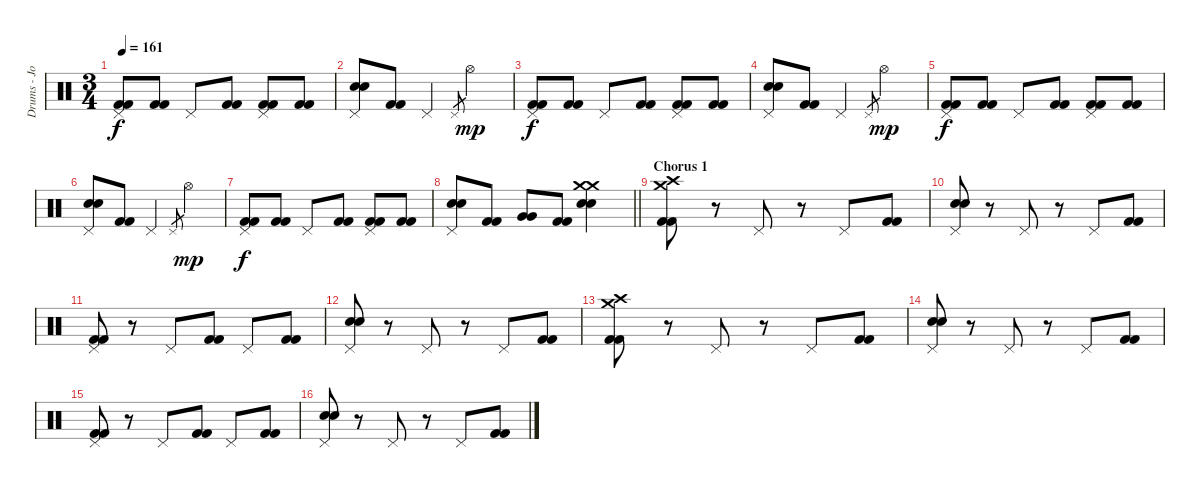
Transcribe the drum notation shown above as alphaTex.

\track ("Drums - Jon Wilkes" "Drums - Jo") {instrument percussion}
\staff {score}
\articulation defaults
\ts (3 4)
\tempo 161
\clef neutral
\ks c
("Pedal Hi-Hat (hit)" "Kick (hit) 2" "Kick (hit) 2").8{dy f} ("Kick (hit) 2" "Kick (hit) 2").8 "Pedal Hi-Hat (hit)".8 ("Kick (hit) 2" "Kick (hit) 2").8 ("Pedal Hi-Hat (hit)" "Kick (hit) 2" "Kick (hit) 2").8 ("Kick (hit) 2" "Kick (hit) 2").8 |
("Pedal Hi-Hat (hit)" "Electric Snare (hit)" "Electric Snare (hit)").8 ("Kick (hit) 2" "Kick (hit) 2").8 "Pedal Hi-Hat (hit)".4 "Pedal Hi-Hat (hit)".8{gr} "Hi-Hat (open)".4{dy mp} |
("Pedal Hi-Hat (hit)" "Kick (hit) 2" "Kick (hit) 2").8{dy f} ("Kick (hit) 2" "Kick (hit) 2").8 "Pedal Hi-Hat (hit)".8 ("Kick (hit) 2" "Kick (hit) 2").8 ("Pedal Hi-Hat (hit)" "Kick (hit) 2" "Kick (hit) 2").8 ("Kick (hit) 2" "Kick (hit) 2").8 |
("Pedal Hi-Hat (hit)" "Electric Snare (hit)" "Electric Snare (hit)").8 ("Kick (hit) 2" "Kick (hit) 2").8 "Pedal Hi-Hat (hit)".4 "Pedal Hi-Hat (hit)".8{gr} "Hi-Hat (open)".4{dy mp} |
("Pedal Hi-Hat (hit)" "Kick (hit) 2" "Kick (hit) 2").8{dy f} ("Kick (hit) 2" "Kick (hit) 2").8 "Pedal Hi-Hat (hit)".8 ("Kick (hit) 2" "Kick (hit) 2").8 ("Pedal Hi-Hat (hit)" "Kick (hit) 2" "Kick (hit) 2").8 ("Kick (hit) 2" "Kick (hit) 2").8 |
("Pedal Hi-Hat (hit)" "Electric Snare (hit)" "Electric Snare (hit)").8 ("Kick (hit) 2" "Kick (hit) 2").8 "Pedal Hi-Hat (hit)".4 "Pedal Hi-Hat (hit)".8{gr} "Hi-Hat (open)".4{dy mp} |
("Pedal Hi-Hat (hit)" "Kick (hit) 2" "Kick (hit) 2").8{dy f} ("Kick (hit) 2" "Kick (hit) 2").8 "Pedal Hi-Hat (hit)".8 ("Kick (hit) 2" "Kick (hit) 2").8 ("Pedal Hi-Hat (hit)" "Kick (hit) 2" "Kick (hit) 2").8 ("Kick (hit) 2" "Kick (hit) 2").8 |
\barLineRight lightlight
("Pedal Hi-Hat (hit)" "Electric Snare (hit)" "Electric Snare (hit)").8 ("Kick (hit) 2" "Kick (hit) 2").8 ("Very Low Tom (hit)" "Very Low Tom (hit)").8 ("Kick (hit) 2" "Kick (hit) 2").8 ("Crash medium (hit)" "Crash medium (hit)" "Electric Snare (hit)" "Electric Snare (hit)").4 |
\section ("" "Chorus 1")
("Crash medium (hit)" "Crash high (hit)" "Kick (hit) 2" "Kick (hit) 2").8 r.8 "Pedal Hi-Hat (hit)".8 r.8 "Pedal Hi-Hat (hit)".8 ("Kick (hit) 2" "Kick (hit) 2").8 |
("Pedal Hi-Hat (hit)" "Electric Snare (hit)" "Electric Snare (hit)").8 r.8 "Pedal Hi-Hat (hit)".8 r.8 "Pedal Hi-Hat (hit)".8 ("Kick (hit) 2" "Kick (hit) 2").8 |
("Pedal Hi-Hat (hit)" "Kick (hit) 2" "Kick (hit) 2").8 r.8 "Pedal Hi-Hat (hit)".8 ("Kick (hit) 2" "Kick (hit) 2").8 "Pedal Hi-Hat (hit)".8 ("Kick (hit) 2" "Kick (hit) 2").8 |
("Pedal Hi-Hat (hit)" "Electric Snare (hit)" "Electric Snare (hit)").8 r.8 "Pedal Hi-Hat (hit)".8 r.8 "Pedal Hi-Hat (hit)".8 ("Kick (hit) 2" "Kick (hit) 2").8 |
("Crash medium (hit)" "Crash high (hit)" "Kick (hit) 2" "Kick (hit) 2").8 r.8 "Pedal Hi-Hat (hit)".8 r.8 "Pedal Hi-Hat (hit)".8 ("Kick (hit) 2" "Kick (hit) 2").8 |
("Pedal Hi-Hat (hit)" "Electric Snare (hit)" "Electric Snare (hit)").8 r.8 "Pedal Hi-Hat (hit)".8 r.8 "Pedal Hi-Hat (hit)".8 ("Kick (hit) 2" "Kick (hit) 2").8 |
("Pedal Hi-Hat (hit)" "Kick (hit) 2" "Kick (hit) 2").8 r.8 "Pedal Hi-Hat (hit)".8 ("Kick (hit) 2" "Kick (hit) 2").8 "Pedal Hi-Hat (hit)".8 ("Kick (hit) 2" "Kick (hit) 2").8 |
("Pedal Hi-Hat (hit)" "Electric Snare (hit)" "Electric Snare (hit)").8 r.8 "Pedal Hi-Hat (hit)".8 r.8 "Pedal Hi-Hat (hit)".8 ("Kick (hit) 2" "Kick (hit) 2").8
